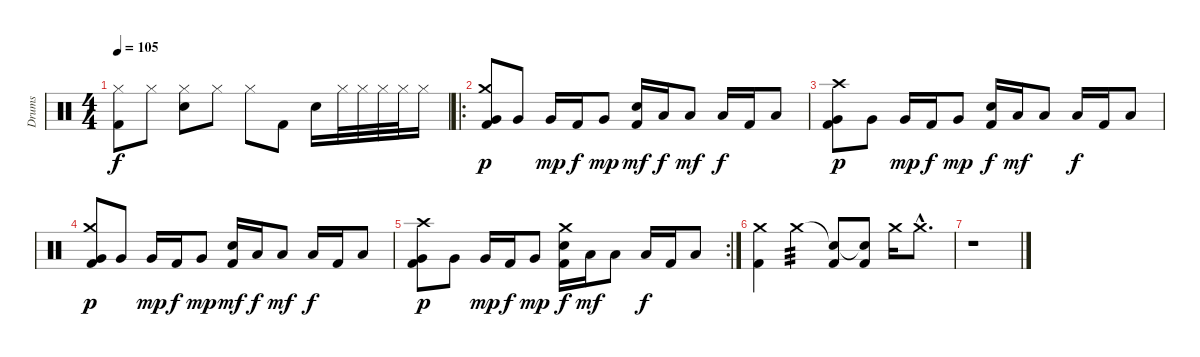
\track ("Drums" "Drums") {instrument percussion}
\staff {score}
\articulation defaults
\ts (4 4)
\tempo 105
\clef neutral
\ks c
("Hi-Hat (closed)" "Kick (hit) 2").8{dy f} "Hi-Hat (closed)".8 ("Hi-Hat (closed)" "Electric Snare (hit)").8 "Hi-Hat (closed)".8 "Hi-Hat (closed)".8 "Kick (hit) 2".8 "Electric Snare (hit)".16 "Hi-Hat (closed)".32 "Hi-Hat (closed)".32 "Hi-Hat (closed)".32 "Hi-Hat (closed)".32 "Hi-Hat (closed)".16 |
\ro
("Crash medium (hit)" "Very Low Tom (hit)" "Kick (hit) 2").8{dy p} "Very Low Tom (hit)".8 "Very Low Tom (hit)".16{dy mp} "Kick (hit) 2".16{dy f} "Very Low Tom (hit)".8{dy mp} ("Electric Snare (hit)" "Kick (hit) 2").16{dy mf} "Low Tom (hit)".16{dy f} "Low Tom (hit)".8{dy mf} "Low Tom (hit)".16{dy f} "Kick (hit) 2".16 "Low Tom (hit)".8 |
("Crash high (hit)" "Very Low Tom (hit)" "Kick (hit) 2").8{dy p} "Very Low Tom (hit)".8 "Very Low Tom (hit)".16{dy mp} "Kick (hit) 2".16{dy f} "Very Low Tom (hit)".8{dy mp} ("Electric Snare (hit)" "Kick (hit) 2").16{dy f} "Low Tom (hit)".16{dy mf} "Low Tom (hit)".8 "Low Tom (hit)".16{dy f} "Kick (hit) 2".16 "Low Tom (hit)".8 |
("Crash medium (hit)" "Very Low Tom (hit)" "Kick (hit) 2").8{dy p} "Very Low Tom (hit)".8 "Very Low Tom (hit)".16{dy mp} "Kick (hit) 2".16{dy f} "Very Low Tom (hit)".8{dy mp} ("Electric Snare (hit)" "Kick (hit) 2").16{dy mf} "Low Tom (hit)".16{dy f} "Low Tom (hit)".8{dy mf} "Low Tom (hit)".16{dy f} "Kick (hit) 2".16 "Low Tom (hit)".8 |
\rc 2
("Crash high (hit)" "Very Low Tom (hit)" "Kick (hit) 2").8{dy p} "Very Low Tom (hit)".8 "Very Low Tom (hit)".16{dy mp} "Kick (hit) 2".16{dy f} "Very Low Tom (hit)".8{dy mp} ("Crash medium (hit)" "Electric Snare (hit)" "Kick (hit) 2").16{dy f} "Low Tom (hit)".16{dy mf} "Low Tom (hit)".8 "Low Tom (hit)".16{dy f} "Kick (hit) 2".16 "Low Tom (hit)".8 |
("Crash medium (hit)" "Kick (hit) 2").4 "Crash medium (hit)".4{tp 3} ("Snare (hit)"{t} "Kick (hit) 2").8 ("Snare (hit)"{t} "Kick (hit) 2").8 "Crash medium (hit)".16 "Crash medium (hit)"{hac}.8{d} |
r.1
